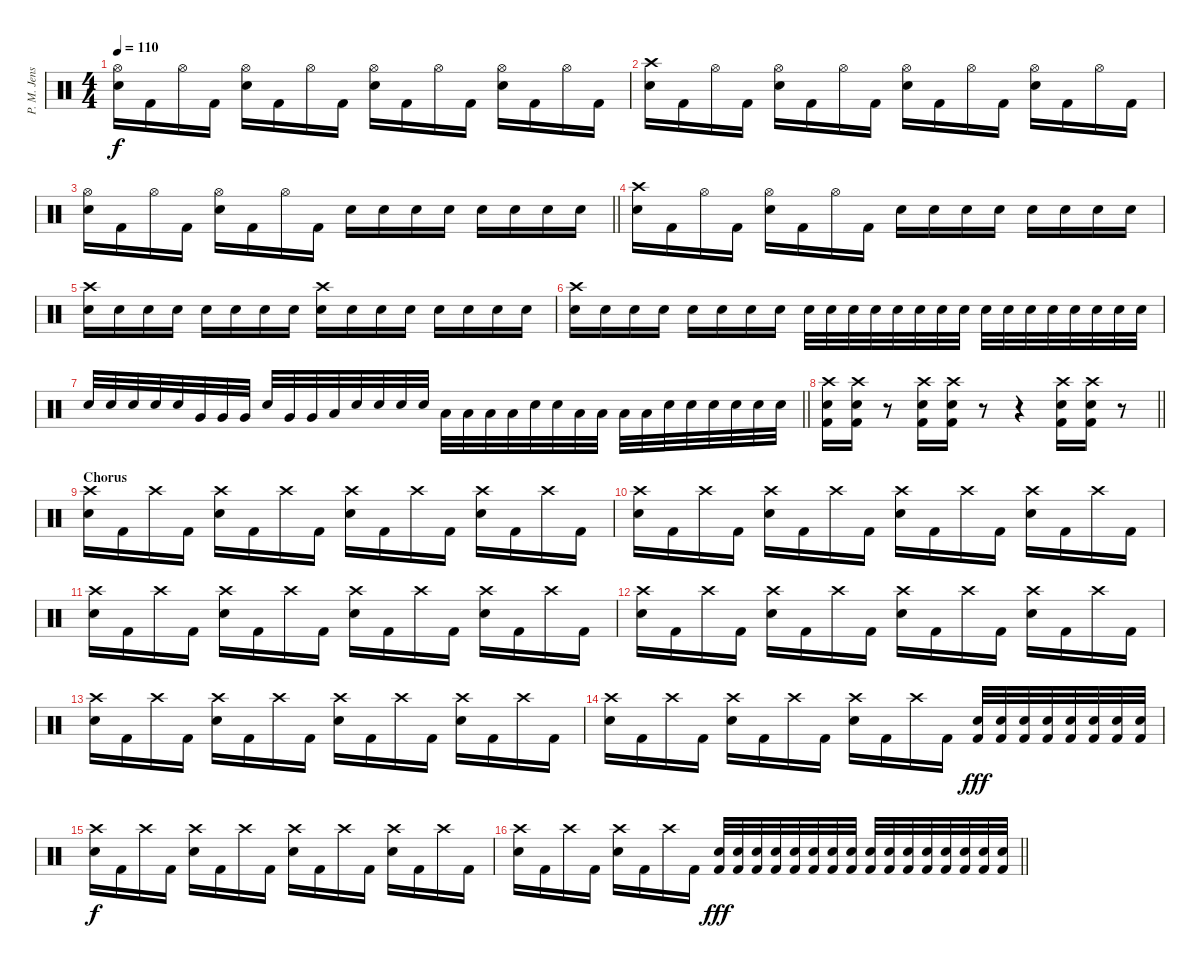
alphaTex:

\track ("P. M. Jensen" "P. M. Jens") {instrument percussion}
\staff {score}
\articulation defaults
\ts (4 4)
\tempo 110
\clef neutral
\ks c
("Hi-Hat (open)" "Electric Snare (hit)").16{dy f} "Kick (hit) 2".16 "Hi-Hat (open)".16 "Kick (hit) 2".16 ("Hi-Hat (open)" "Electric Snare (hit)").16 "Kick (hit) 2".16 "Hi-Hat (open)".16 "Kick (hit) 2".16 ("Hi-Hat (open)" "Electric Snare (hit)").16 "Kick (hit) 2".16 "Hi-Hat (open)".16 "Kick (hit) 2".16 ("Hi-Hat (open)" "Electric Snare (hit)").16 "Kick (hit) 2".16 "Hi-Hat (open)".16 "Kick (hit) 2".16 |
("Crash high (hit)" "Electric Snare (hit)").16 "Kick (hit) 2".16 "Hi-Hat (open)".16 "Kick (hit) 2".16 ("Hi-Hat (open)" "Electric Snare (hit)").16 "Kick (hit) 2".16 "Hi-Hat (open)".16 "Kick (hit) 2".16 ("Hi-Hat (open)" "Electric Snare (hit)").16 "Kick (hit) 2".16 "Hi-Hat (open)".16 "Kick (hit) 2".16 ("Hi-Hat (open)" "Electric Snare (hit)").16 "Kick (hit) 2".16 "Hi-Hat (open)".16 "Kick (hit) 2".16 |
\barLineRight lightlight
("Hi-Hat (open)" "Electric Snare (hit)").16 "Kick (hit) 2".16 "Hi-Hat (open)".16 "Kick (hit) 2".16 ("Hi-Hat (open)" "Electric Snare (hit)").16 "Kick (hit) 2".16 "Hi-Hat (open)".16 "Kick (hit) 2".16 "Electric Snare (hit)".16 "Electric Snare (hit)".16 "Electric Snare (hit)".16 "Electric Snare (hit)".16 "Electric Snare (hit)".16 "Electric Snare (hit)".16 "Electric Snare (hit)".16 "Electric Snare (hit)".16 |
("Crash high (hit)" "Electric Snare (hit)").16 "Kick (hit) 2".16 "Hi-Hat (open)".16 "Kick (hit) 2".16 ("Hi-Hat (open)" "Electric Snare (hit)").16 "Kick (hit) 2".16 "Hi-Hat (open)".16 "Kick (hit) 2".16 "Electric Snare (hit)".16 "Electric Snare (hit)".16 "Electric Snare (hit)".16 "Electric Snare (hit)".16 "Electric Snare (hit)".16 "Electric Snare (hit)".16 "Electric Snare (hit)".16 "Electric Snare (hit)".16 |
("Crash high (hit)" "Electric Snare (hit)").16 "Electric Snare (hit)".16 "Electric Snare (hit)".16 "Electric Snare (hit)".16 "Electric Snare (hit)".16 "Electric Snare (hit)".16 "Electric Snare (hit)".16 "Electric Snare (hit)".16 ("Crash high (hit)" "Electric Snare (hit)").16 "Electric Snare (hit)".16 "Electric Snare (hit)".16 "Electric Snare (hit)".16 "Electric Snare (hit)".16 "Electric Snare (hit)".16 "Electric Snare (hit)".16 "Electric Snare (hit)".16 |
("Crash high (hit)" "Electric Snare (hit)").16 "Electric Snare (hit)".16 "Electric Snare (hit)".16 "Electric Snare (hit)".16 "Electric Snare (hit)".16 "Electric Snare (hit)".16 "Electric Snare (hit)".16 "Electric Snare (hit)".16 "Electric Snare (hit)".32 "Electric Snare (hit)".32 "Electric Snare (hit)".32 "Electric Snare (hit)".32 "Electric Snare (hit)".32 "Electric Snare (hit)".32 "Electric Snare (hit)".32 "Electric Snare (hit)".32 "Electric Snare (hit)".32 "Electric Snare (hit)".32 "Electric Snare (hit)".32 "Electric Snare (hit)".32 "Electric Snare (hit)".32 "Electric Snare (hit)".32 "Electric Snare (hit)".32 "Electric Snare (hit)".32 |
\barLineRight lightlight "Electric Snare (hit)".32 "Electric Snare (hit)".32 "Electric Snare (hit)".32 "Electric Snare (hit)".32 "Electric Snare (hit)".32 "Very Low Tom (hit)".32 "Very Low Tom (hit)".32 "Very Low Tom (hit)".32 "Electric Snare (hit)".32 "Very Low Tom (hit)".32 "Very Low Tom (hit)".32 "Low Tom (hit)".32 "Electric Snare (hit)".32 "Electric Snare (hit)".32 "Electric Snare (hit)".32 "Electric Snare (hit)".32 "Low Tom (hit)".32 "Low Tom (hit)".32 "Low Tom (hit)".32 "Low Tom (hit)".32 "Electric Snare (hit)".32 "Electric Snare (hit)".32 "Low Tom (hit)".32 "Low Tom (hit)".32 "Low Tom (hit)".32 "Low Tom (hit)".32 "Electric Snare (hit)".32 "Electric Snare (hit)".32 "Electric Snare (hit)".32 "Electric Snare (hit)".32 "Electric Snare (hit)".32 "Electric Snare (hit)".32
|
\barLineRight lightlight
("Crash high (hit)" "Electric Snare (hit)" "Kick (hit) 2").16 ("Crash high (hit)" "Electric Snare (hit)" "Kick (hit) 2").16 r.8 ("Crash high (hit)" "Electric Snare (hit)" "Kick (hit) 2").16 ("Crash high (hit)" "Electric Snare (hit)" "Kick (hit) 2").16 r.8 r.4 ("Crash high (hit)" "Electric Snare (hit)" "Kick (hit) 2").16 ("Crash high (hit)" "Electric Snare (hit)" "Kick (hit) 2").16 r.8 |
\section ("" "Chorus")
("Crash high (hit)" "Electric Snare (hit)").16 "Kick (hit) 2".16 "Crash high (hit)".16 "Kick (hit) 2".16 ("Crash high (hit)" "Electric Snare (hit)").16 "Kick (hit) 2".16 "Crash high (hit)".16 "Kick (hit) 2".16 ("Crash high (hit)" "Electric Snare (hit)").16 "Kick (hit) 2".16 "Crash high (hit)".16 "Kick (hit) 2".16 ("Crash high (hit)" "Electric Snare (hit)").16 "Kick (hit) 2".16 "Crash high (hit)".16 "Kick (hit) 2".16 |
("Crash high (hit)" "Electric Snare (hit)").16 "Kick (hit) 2".16 "Crash high (hit)".16 "Kick (hit) 2".16 ("Crash high (hit)" "Electric Snare (hit)").16 "Kick (hit) 2".16 "Crash high (hit)".16 "Kick (hit) 2".16 ("Crash high (hit)" "Electric Snare (hit)").16 "Kick (hit) 2".16 "Crash high (hit)".16 "Kick (hit) 2".16 ("Crash high (hit)" "Electric Snare (hit)").16 "Kick (hit) 2".16 "Crash high (hit)".16 "Kick (hit) 2".16 |
("Crash high (hit)" "Electric Snare (hit)").16 "Kick (hit) 2".16 "Crash high (hit)".16 "Kick (hit) 2".16 ("Crash high (hit)" "Electric Snare (hit)").16 "Kick (hit) 2".16 "Crash high (hit)".16 "Kick (hit) 2".16 ("Crash high (hit)" "Electric Snare (hit)").16 "Kick (hit) 2".16 "Crash high (hit)".16 "Kick (hit) 2".16 ("Crash high (hit)" "Electric Snare (hit)").16 "Kick (hit) 2".16 "Crash high (hit)".16 "Kick (hit) 2".16 |
("Crash high (hit)" "Electric Snare (hit)").16 "Kick (hit) 2".16 "Crash high (hit)".16 "Kick (hit) 2".16 ("Crash high (hit)" "Electric Snare (hit)").16 "Kick (hit) 2".16 "Crash high (hit)".16 "Kick (hit) 2".16 ("Crash high (hit)" "Electric Snare (hit)").16 "Kick (hit) 2".16 "Crash high (hit)".16 "Kick (hit) 2".16 ("Crash high (hit)" "Electric Snare (hit)").16 "Kick (hit) 2".16 "Crash high (hit)".16 "Kick (hit) 2".16 |
("Crash high (hit)" "Electric Snare (hit)").16 "Kick (hit) 2".16 "Crash high (hit)".16 "Kick (hit) 2".16 ("Crash high (hit)" "Electric Snare (hit)").16 "Kick (hit) 2".16 "Crash high (hit)".16 "Kick (hit) 2".16 ("Crash high (hit)" "Electric Snare (hit)").16 "Kick (hit) 2".16 "Crash high (hit)".16 "Kick (hit) 2".16 ("Crash high (hit)" "Electric Snare (hit)").16 "Kick (hit) 2".16 "Crash high (hit)".16 "Kick (hit) 2".16 |
("Crash high (hit)" "Electric Snare (hit)").16 "Kick (hit) 2".16 "Crash high (hit)".16 "Kick (hit) 2".16 ("Crash high (hit)" "Electric Snare (hit)").16 "Kick (hit) 2".16 "Crash high (hit)".16 "Kick (hit) 2".16 ("Crash high (hit)" "Electric Snare (hit)").16 "Kick (hit) 2".16 "Crash high (hit)".16 "Kick (hit) 2".16 ("Electric Snare (hit)" "Kick (hit) 2").32{dy fff} ("Electric Snare (hit)" "Kick (hit) 2").32 ("Electric Snare (hit)" "Kick (hit) 2").32 ("Electric Snare (hit)" "Kick (hit) 2").32 ("Electric Snare (hit)" "Kick (hit) 2").32 ("Electric Snare (hit)" "Kick (hit) 2").32 ("Electric Snare (hit)" "Kick (hit) 2").32 ("Electric Snare (hit)" "Kick (hit) 2").32 |
("Crash high (hit)" "Electric Snare (hit)").16{dy f} "Kick (hit) 2".16 "Crash high (hit)".16 "Kick (hit) 2".16 ("Crash high (hit)" "Electric Snare (hit)").16 "Kick (hit) 2".16 "Crash high (hit)".16 "Kick (hit) 2".16 ("Crash high (hit)" "Electric Snare (hit)").16 "Kick (hit) 2".16 "Crash high (hit)".16 "Kick (hit) 2".16 ("Crash high (hit)" "Electric Snare (hit)").16 "Kick (hit) 2".16 "Crash high (hit)".16 "Kick (hit) 2".16 |
\barLineRight lightlight
("Crash high (hit)" "Electric Snare (hit)").16 "Kick (hit) 2".16 "Crash high (hit)".16 "Kick (hit) 2".16 ("Crash high (hit)" "Electric Snare (hit)").16 "Kick (hit) 2".16 "Crash high (hit)".16 "Kick (hit) 2".16 ("Electric Snare (hit)" "Kick (hit) 2").32{dy fff} ("Electric Snare (hit)" "Kick (hit) 2").32 ("Electric Snare (hit)" "Kick (hit) 2").32 ("Electric Snare (hit)" "Kick (hit) 2").32 ("Electric Snare (hit)" "Kick (hit) 2").32 ("Electric Snare (hit)" "Kick (hit) 2").32 ("Electric Snare (hit)" "Kick (hit) 2").32 ("Electric Snare (hit)" "Kick (hit) 2").32 ("Electric Snare (hit)" "Kick (hit) 2").32 ("Electric Snare (hit)" "Kick (hit) 2").32 ("Electric Snare (hit)" "Kick (hit) 2").32 ("Electric Snare (hit)" "Kick (hit) 2").32 ("Electric Snare (hit)" "Kick (hit) 2").32 ("Electric Snare (hit)" "Kick (hit) 2").32 ("Electric Snare (hit)" "Kick (hit) 2").32 ("Electric Snare (hit)" "Kick (hit) 2").32
